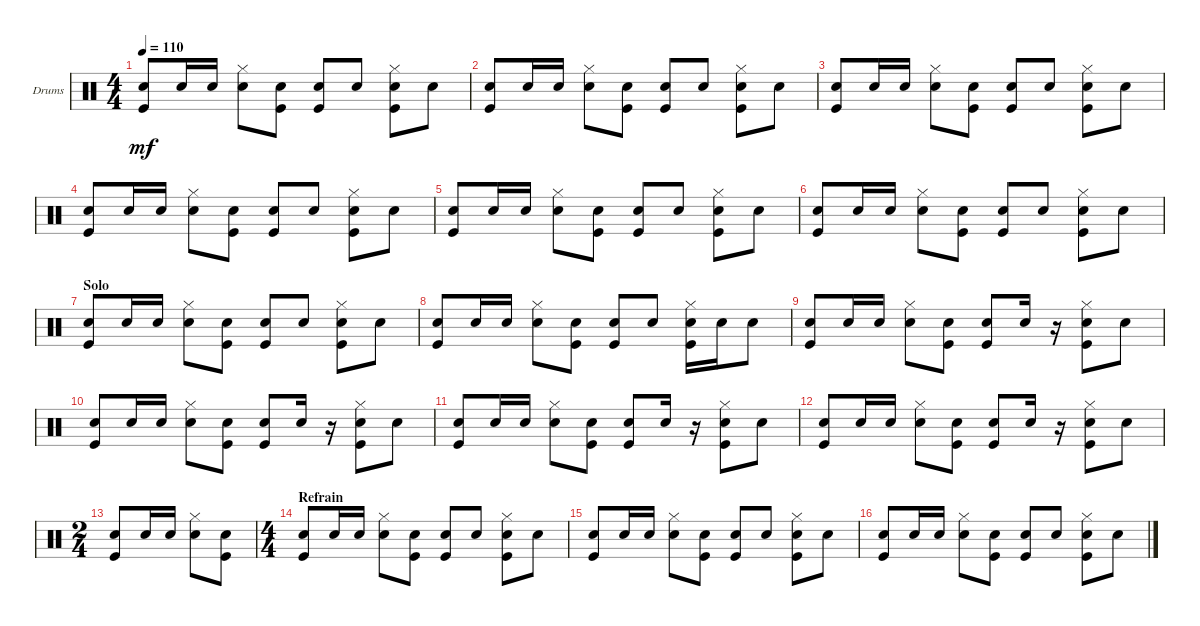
\bracketExtendMode groupsimilarinstruments
\firstSystemTrackNameOrientation horizontal
\otherSystemsTrackNameOrientation horizontal
\track ("Drumkit" "Drums") {instrument percussion}
\staff {score}
\articulation defaults
\ts (4 4)
\tempo 110
\clef neutral
\ks c
("Kick (hit)" "Snare (hit) 2").8{dy mf} "Snare (hit) 2".16 "Snare (hit) 2".16 ("Snare (hit) 2" "Hi-Hat (closed)").8 ("Kick (hit)" "Snare (hit) 2").8 ("Kick (hit)" "Snare (hit) 2").8 "Snare (hit) 2".8 ("Kick (hit)" "Snare (hit) 2" "Hi-Hat (closed)").8 "Snare (hit) 2".8 |
("Kick (hit)" "Snare (hit) 2").8 "Snare (hit) 2".16 "Snare (hit) 2".16 ("Snare (hit) 2" "Hi-Hat (closed)").8 ("Kick (hit)" "Snare (hit) 2").8 ("Kick (hit)" "Snare (hit) 2").8 "Snare (hit) 2".8 ("Kick (hit)" "Snare (hit) 2" "Hi-Hat (closed)").8 "Snare (hit) 2".8 |
("Kick (hit)" "Snare (hit) 2").8 "Snare (hit) 2".16 "Snare (hit) 2".16 ("Snare (hit) 2" "Hi-Hat (closed)").8 ("Kick (hit)" "Snare (hit) 2").8 ("Kick (hit)" "Snare (hit) 2").8 "Snare (hit) 2".8 ("Kick (hit)" "Snare (hit) 2" "Hi-Hat (closed)").8 "Snare (hit) 2".8 |
("Kick (hit)" "Snare (hit) 2").8 "Snare (hit) 2".16 "Snare (hit) 2".16 ("Snare (hit) 2" "Hi-Hat (closed)").8 ("Kick (hit)" "Snare (hit) 2").8 ("Kick (hit)" "Snare (hit) 2").8 "Snare (hit) 2".8 ("Kick (hit)" "Snare (hit) 2" "Hi-Hat (closed)").8 "Snare (hit) 2".8 |
("Kick (hit)" "Snare (hit) 2").8 "Snare (hit) 2".16 "Snare (hit) 2".16 ("Snare (hit) 2" "Hi-Hat (closed)").8 ("Kick (hit)" "Snare (hit) 2").8 ("Kick (hit)" "Snare (hit) 2").8 "Snare (hit) 2".8 ("Kick (hit)" "Snare (hit) 2" "Hi-Hat (closed)").8 "Snare (hit) 2".8 |
("Kick (hit)" "Snare (hit) 2").8 "Snare (hit) 2".16 "Snare (hit) 2".16 ("Snare (hit) 2" "Hi-Hat (closed)").8 ("Kick (hit)" "Snare (hit) 2").8 ("Kick (hit)" "Snare (hit) 2").8 "Snare (hit) 2".8 ("Kick (hit)" "Snare (hit) 2" "Hi-Hat (closed)").8 "Snare (hit) 2".8 |
\section ("" "Solo")
\scale
0.333333 ("Kick (hit)" "Snare (hit) 2").8 "Snare (hit) 2".16 "Snare (hit) 2".16 ("Snare (hit) 2" "Hi-Hat (closed)").8 ("Kick (hit)" "Snare (hit) 2").8 ("Kick (hit)" "Snare (hit) 2").8 "Snare (hit) 2".8 ("Kick (hit)" "Snare (hit) 2" "Hi-Hat (closed)").8 "Snare (hit) 2".8 |
\scale
0.333333 ("Kick (hit)" "Snare (hit) 2").8 "Snare (hit) 2".16 "Snare (hit) 2".16 ("Snare (hit) 2" "Hi-Hat (closed)").8 ("Kick (hit)" "Snare (hit) 2").8 ("Kick (hit)" "Snare (hit) 2").8 "Snare (hit) 2".8 ("Kick (hit)" "Snare (hit) 2" "Hi-Hat (closed)").16 "Snare (hit) 2".16 "Snare (hit) 2".8 |
\scale
0.333333 ("Kick (hit)" "Snare (hit) 2").8 "Snare (hit) 2".16 "Snare (hit) 2".16 ("Snare (hit) 2" "Hi-Hat (closed)").8 ("Kick (hit)" "Snare (hit) 2").8 ("Kick (hit)" "Snare (hit) 2").8 "Snare (hit) 2".16 r.16 ("Kick (hit)" "Snare (hit) 2" "Hi-Hat (closed)").8 "Snare (hit) 2".8 |
\scale
0.333333 ("Kick (hit)" "Snare (hit) 2").8 "Snare (hit) 2".16 "Snare (hit) 2".16 ("Snare (hit) 2" "Hi-Hat (closed)").8 ("Kick (hit)" "Snare (hit) 2").8 ("Kick (hit)" "Snare (hit) 2").8 "Snare (hit) 2".16 r.16 ("Kick (hit)" "Snare (hit) 2" "Hi-Hat (closed)").8 "Snare (hit) 2".8 |
\scale
0.333333 ("Kick (hit)" "Snare (hit) 2").8 "Snare (hit) 2".16 "Snare (hit) 2".16 ("Snare (hit) 2" "Hi-Hat (closed)").8 ("Kick (hit)" "Snare (hit) 2").8 ("Kick (hit)" "Snare (hit) 2").8 "Snare (hit) 2".16 r.16 ("Kick (hit)" "Snare (hit) 2" "Hi-Hat (closed)").8 "Snare (hit) 2".8 |
\scale
0.333333 ("Kick (hit)" "Snare (hit) 2").8 "Snare (hit) 2".16 "Snare (hit) 2".16 ("Snare (hit) 2" "Hi-Hat (closed)").8 ("Kick (hit)" "Snare (hit) 2").8 ("Kick (hit)" "Snare (hit) 2").8 "Snare (hit) 2".16 r.16 ("Kick (hit)" "Snare (hit) 2" "Hi-Hat (closed)").8 "Snare (hit) 2".8 |
\ts (2 4)
\scale
0.390805 ("Kick (hit)" "Snare (hit) 2").8 "Snare (hit) 2".16 "Snare (hit) 2".16 ("Snare (hit) 2" "Hi-Hat (closed)").8 ("Kick (hit)" "Snare (hit) 2").8 |
\ts (4 4)
\section ("" "Refrain")
("Kick (hit)" "Snare (hit) 2").8 "Snare (hit) 2".16 "Snare (hit) 2".16 ("Snare (hit) 2" "Hi-Hat (closed)").8 ("Kick (hit)" "Snare (hit) 2").8 ("Kick (hit)" "Snare (hit) 2").8 "Snare (hit) 2".8 ("Kick (hit)" "Snare (hit) 2" "Hi-Hat (closed)").8 "Snare (hit) 2".8 |
("Kick (hit)" "Snare (hit) 2").8 "Snare (hit) 2".16 "Snare (hit) 2".16 ("Snare (hit) 2" "Hi-Hat (closed)").8 ("Kick (hit)" "Snare (hit) 2").8 ("Kick (hit)" "Snare (hit) 2").8 "Snare (hit) 2".8 ("Kick (hit)" "Snare (hit) 2" "Hi-Hat (closed)").8 "Snare (hit) 2".8 |
("Kick (hit)" "Snare (hit) 2").8 "Snare (hit) 2".16 "Snare (hit) 2".16 ("Snare (hit) 2" "Hi-Hat (closed)").8 ("Kick (hit)" "Snare (hit) 2").8 ("Kick (hit)" "Snare (hit) 2").8 "Snare (hit) 2".8 ("Kick (hit)" "Snare (hit) 2" "Hi-Hat (closed)").8 "Snare (hit) 2".8
